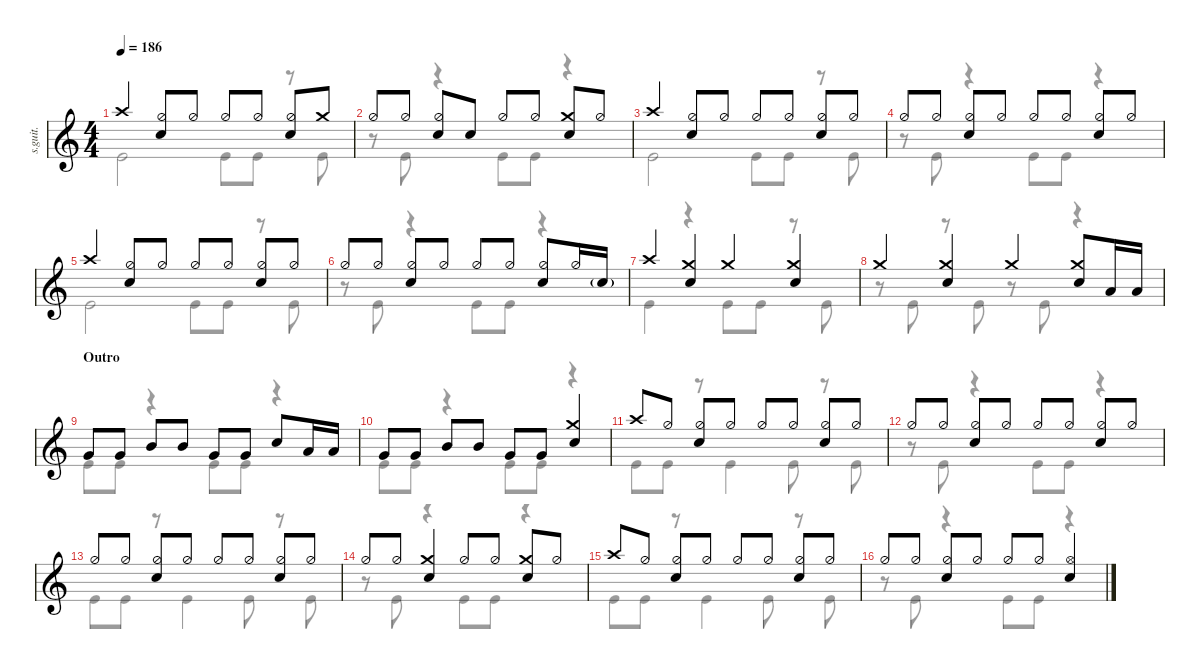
\defaultSystemsLayout 4
\hideDynamics
\bracketExtendMode nobrackets
\track ("Tre Cool" "s.guit.") {instrument percussion}
\staff {score}
\articulation defaults
\voice
\ts (4 4)
\tempo 186
\clef g2
\ks c "Crash high (hit)".4{dy f}
("Hi-Hat (half)" "Snare (hit) 2").8 "Hi-Hat (half)".8 "Hi-Hat (half)".8 "Hi-Hat (half)".8 ("Hi-Hat (half)" "Snare (hit) 2").8 "Crash medium (hit)".8 |
"Hi-Hat (half)".8 "Hi-Hat (half)".8 ("Hi-Hat (half)" "Snare (hit) 2").8 "Snare (hit) 2".8 "Hi-Hat (half)".8 "Hi-Hat (half)".8 ("Crash medium (hit)" "Snare (hit) 2").8 "Hi-Hat (half)".8 |
"Crash high (hit)".4 ("Hi-Hat (half)" "Snare (hit) 2").8 "Hi-Hat (half)".8 "Hi-Hat (half)".8 "Hi-Hat (half)".8 ("Hi-Hat (half)" "Snare (hit) 2").8 "Hi-Hat (half)".8 |
"Hi-Hat (half)".8 "Hi-Hat (half)".8 ("Hi-Hat (half)" "Snare (hit) 2").8 "Hi-Hat (half)".8 "Hi-Hat (half)".8 "Hi-Hat (half)".8 ("Hi-Hat (half)" "Snare (hit) 2").8 "Hi-Hat (half)".8 |
"Crash high (hit)".4 ("Hi-Hat (half)" "Snare (hit) 2").8 "Hi-Hat (half)".8 "Hi-Hat (half)".8 "Hi-Hat (half)".8 ("Hi-Hat (half)" "Snare (hit) 2").8 "Hi-Hat (half)".8 |
"Hi-Hat (half)".8 "Hi-Hat (half)".8 ("Hi-Hat (half)" "Snare (hit) 2").8 "Hi-Hat (half)".8 "Hi-Hat (half)".8 "Hi-Hat (half)".8 ("Hi-Hat (half)" "Snare (hit) 2").8 "Hi-Hat (half)".16 "Snare (hit) 2"{g}.16{dy fff} |
"Crash high (hit)".4{dy f} ("Snare (hit) 2" "Crash medium (hit)").4 "Crash medium (hit)".4 ("Snare (hit) 2" "Crash medium (hit)").4 |
"Crash medium (hit)".4 ("Snare (hit) 2" "Crash medium (hit)").4 "Crash medium (hit)".4 ("Crash medium (hit)" "Snare (hit) 2").8 "Low Tom (hit)".16 "Low Tom (hit)".16 |
\section ("" "Outro")
"Very Low Tom (hit)".8 "Very Low Tom (hit)".8 "Mid Tom (hit)".8 "Mid Tom (hit)".8 "Very Low Tom (hit)".8 "Very Low Tom (hit)".8 "Snare (hit) 2".8 "Low Tom (hit)".16 "Low Tom (hit)".16 |
"Very Low Tom (hit)".8 "Very Low Tom (hit)".8 "Mid Tom (hit)".8 "Mid Tom (hit)".8 "Very Low Tom (hit)".8 "Very Low Tom (hit)".8 ("Snare (hit) 2" "Crash medium (hit)").4 |
"Crash high (hit)".8 "Hi-Hat (half)".8 ("Hi-Hat (half)" "Snare (hit) 2").8 "Hi-Hat (half)".8 "Hi-Hat (half)".8 "Hi-Hat (half)".8 ("Hi-Hat (half)" "Snare (hit) 2").8 "Hi-Hat (half)".8 |
"Hi-Hat (half)".8 "Hi-Hat (half)".8 ("Hi-Hat (half)" "Snare (hit) 2").8 "Hi-Hat (half)".8 "Hi-Hat (half)".8 "Hi-Hat (half)".8 ("Hi-Hat (half)" "Snare (hit) 2").8 "Hi-Hat (half)".8 |
"Hi-Hat (half)".8 "Hi-Hat (half)".8 ("Hi-Hat (half)" "Snare (hit) 2").8 "Hi-Hat (half)".8 "Hi-Hat (half)".8 "Hi-Hat (half)".8 ("Hi-Hat (half)" "Snare (hit) 2").8 "Hi-Hat (half)".8 |
"Hi-Hat (half)".8 "Hi-Hat (half)".8 ("Snare (hit) 2" "Crash medium (hit)").4 "Hi-Hat (half)".8 "Hi-Hat (half)".8 ("Snare (hit) 2" "Crash medium (hit)").8 "Hi-Hat (half)".8 |
"Crash high (hit)".8 "Hi-Hat (half)".8 ("Hi-Hat (half)" "Snare (hit) 2").8 "Hi-Hat (half)".8 "Hi-Hat (half)".8 "Hi-Hat (half)".8 ("Hi-Hat (half)" "Snare (hit) 2").8 "Hi-Hat (half)".8 |
"Hi-Hat (half)".8 "Hi-Hat (half)".8 ("Hi-Hat (half)" "Snare (hit) 2").8 "Hi-Hat (half)".8 "Hi-Hat (half)".8 "Hi-Hat (half)".8 ("Hi-Hat (open)" "Snare (hit) 2").4
\voice
\clef g2
\ottava regular
\simile none
\ks c "Kick (hit)".2{dy f} "Kick (hit)".8 "Kick (hit)".8
r.8 "Kick (hit)".8 |
r.8 "Kick (hit)".8 r.4 "Kick (hit)".8 "Kick (hit)".8 r.4 |
"Kick (hit)".2 "Kick (hit)".8 "Kick (hit)".8 r.8 "Kick (hit)".8 |
r.8 "Kick (hit)".8 r.4 "Kick (hit)".8 "Kick (hit)".8 r.4 |
"Kick (hit)".2 "Kick (hit)".8 "Kick (hit)".8 r.8 "Kick (hit)".8 |
r.8 "Kick (hit)".8 r.4 "Kick (hit)".8 "Kick (hit)".8 r.4 |
"Kick (hit)".4 r.4 "Kick (hit)".8 "Kick (hit)".8 r.8 "Kick (hit)".8 |
r.8 "Kick (hit)".8 r.8 "Kick (hit)".8 r.8 "Kick (hit)".8 r.4 |
"Kick (hit)".8 "Kick (hit)".8 r.4 "Kick (hit)".8 "Kick (hit)".8 r.4 |
"Kick (hit)".8 "Kick (hit)".8 r.4 "Kick (hit)".8 "Kick (hit)".8 r.4 |
"Kick (hit)".8 "Kick (hit)".8 r.8 "Kick (hit)".4 "Kick (hit)".8 r.8 "Kick (hit)".8 |
r.8 "Kick (hit)".8 r.4 "Kick (hit)".8 "Kick (hit)".8 r.4 |
"Kick (hit)".8 "Kick (hit)".8 r.8 "Kick (hit)".4 "Kick (hit)".8 r.8 "Kick (hit)".8 |
r.8 "Kick (hit)".8 r.4 "Kick (hit)".8 "Kick (hit)".8 r.4 |
"Kick (hit)".8 "Kick (hit)".8 r.8 "Kick (hit)".4 "Kick (hit)".8 r.8 "Kick (hit)".8 |
r.8 "Kick (hit)".8 r.4 "Kick (hit)".8 "Kick (hit)".8 r.4
